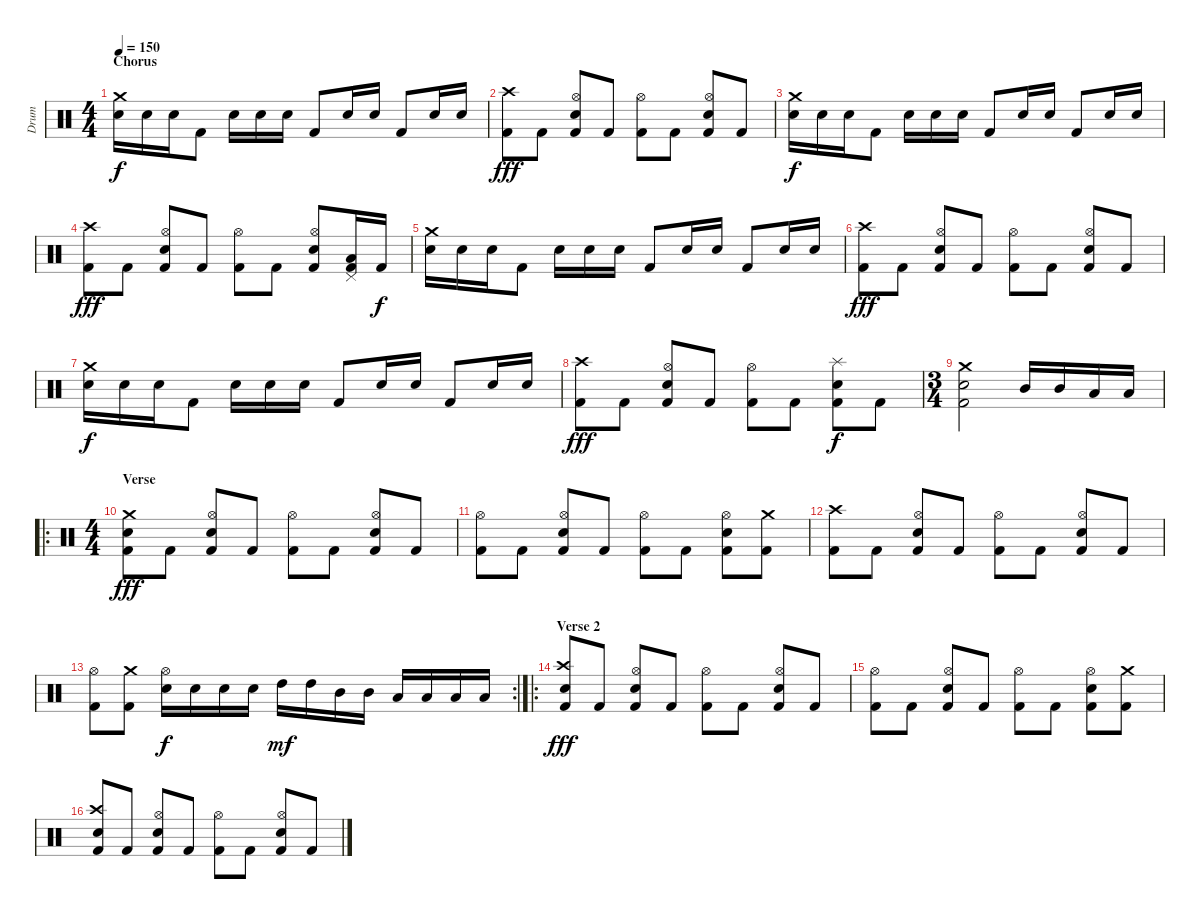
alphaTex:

\track ("Drum" "Drum") {instrument percussion}
\staff {score}
\articulation defaults
\ts (4 4)
\section ("" "Chorus")
\tempo 150
\clef neutral
\ks c
("Crash medium (hit)" "Electric Snare (hit)").16{dy f} "Electric Snare (hit)".16 "Electric Snare (hit)".16 "Kick (hit) 2".8 "Electric Snare (hit)".16 "Electric Snare (hit)".16 "Electric Snare (hit)".16 "Kick (hit) 2".8 "Electric Snare (hit)".16 "Electric Snare (hit)".16 "Kick (hit) 2".8 "Electric Snare (hit)".16 "Electric Snare (hit)".16 |
("Crash high (hit)" "Kick (hit) 2").8{dy fff} "Kick (hit) 2".8 ("Hi-Hat (open)" "Snare (hit) 2" "Kick (hit) 2").8 "Kick (hit) 2".8 ("Hi-Hat (open)" "Kick (hit) 2").8 "Kick (hit) 2".8 ("Hi-Hat (open)" "Snare (hit) 2" "Kick (hit) 2").8 "Kick (hit) 2".8 |
("Crash medium (hit)" "Electric Snare (hit)").16{dy f} "Electric Snare (hit)".16 "Electric Snare (hit)".16 "Kick (hit) 2".8 "Electric Snare (hit)".16 "Electric Snare (hit)".16 "Electric Snare (hit)".16 "Kick (hit) 2".8 "Electric Snare (hit)".16 "Electric Snare (hit)".16 "Kick (hit) 2".8 "Electric Snare (hit)".16 "Electric Snare (hit)".16 |
("Crash high (hit)" "Kick (hit) 2").8{dy fff} "Kick (hit) 2".8 ("Hi-Hat (open)" "Snare (hit) 2" "Kick (hit) 2").8 "Kick (hit) 2".8 ("Hi-Hat (open)" "Kick (hit) 2").8 "Kick (hit) 2".8 ("Hi-Hat (open)" "Snare (hit) 2" "Kick (hit) 2").8 ("Pedal Hi-Hat (hit)" "Low Floor Tom (hit)" "Kick (hit) 2").16 "Kick (hit) 2".16{dy f} |
("Crash medium (hit)" "Electric Snare (hit)").16 "Electric Snare (hit)".16 "Electric Snare (hit)".16 "Kick (hit) 2".8 "Electric Snare (hit)".16 "Electric Snare (hit)".16 "Electric Snare (hit)".16 "Kick (hit) 2".8 "Electric Snare (hit)".16 "Electric Snare (hit)".16 "Kick (hit) 2".8 "Electric Snare (hit)".16 "Electric Snare (hit)".16 |
("Crash high (hit)" "Kick (hit) 2").8{dy fff} "Kick (hit) 2".8 ("Hi-Hat (open)" "Snare (hit) 2" "Kick (hit) 2").8 "Kick (hit) 2".8 ("Hi-Hat (open)" "Kick (hit) 2").8 "Kick (hit) 2".8 ("Hi-Hat (open)" "Snare (hit) 2" "Kick (hit) 2").8 "Kick (hit) 2".8 |
("Crash medium (hit)" "Electric Snare (hit)").16{dy f} "Electric Snare (hit)".16 "Electric Snare (hit)".16 "Kick (hit) 2".8 "Electric Snare (hit)".16 "Electric Snare (hit)".16 "Electric Snare (hit)".16 "Kick (hit) 2".8 "Electric Snare (hit)".16 "Electric Snare (hit)".16 "Kick (hit) 2".8 "Electric Snare (hit)".16 "Electric Snare (hit)".16 |
("Crash high (hit)" "Kick (hit) 2").8{dy fff} "Kick (hit) 2".8 ("Hi-Hat (open)" "Snare (hit) 2" "Kick (hit) 2").8 "Kick (hit) 2".8 ("Hi-Hat (open)" "Kick (hit) 2").8 "Kick (hit) 2".8 ("Splash (hit)" "Electric Snare (hit)" "Kick (hit) 2").8{dy f} "Kick (hit) 2".8 |
\ts (3 4)
("Crash medium (hit)" "Electric Snare (hit)" "Kick (hit) 2").2 "Mid Tom (hit)".16 "Mid Tom (hit)".16 "Low Tom (hit)".16 "Low Tom (hit)".16 |
\ro
\ts (4 4)
\section ("" "Verse")
("Crash medium (hit)" "Snare (hit) 2" "Kick (hit) 2").8{dy fff} "Kick (hit) 2".8 ("Hi-Hat (open)" "Snare (hit) 2" "Kick (hit) 2").8 "Kick (hit) 2".8 ("Hi-Hat (open)" "Kick (hit) 2").8 "Kick (hit) 2".8 ("Hi-Hat (open)" "Snare (hit) 2" "Kick (hit) 2").8 "Kick (hit) 2".8 |
("Hi-Hat (open)" "Kick (hit) 2").8 "Kick (hit) 2".8 ("Hi-Hat (open)" "Snare (hit) 2" "Kick (hit) 2").8 "Kick (hit) 2".8 ("Hi-Hat (open)" "Kick (hit) 2").8 "Kick (hit) 2".8 ("Hi-Hat (open)" "Snare (hit) 2" "Kick (hit) 2").8 ("Crash medium (hit)" "Kick (hit) 2").8 |
("Crash high (hit)" "Kick (hit) 2").8 "Kick (hit) 2".8 ("Hi-Hat (open)" "Snare (hit) 2" "Kick (hit) 2").8 "Kick (hit) 2".8 ("Hi-Hat (open)" "Kick (hit) 2").8 "Kick (hit) 2".8 ("Hi-Hat (open)" "Snare (hit) 2" "Kick (hit) 2").8 "Kick (hit) 2".8 |
\rc 2
("Hi-Hat (open)" "Kick (hit) 2").8 ("Crash medium (hit)" "Kick (hit) 2").8 ("Hi-Hat (open)" "Snare (hit) 2").16{dy f} "Snare (hit) 2".16 "Snare (hit) 2".16 "Snare (hit) 2".16 "High Tom (hit)".16{dy mf} "High Tom (hit)".16 "Mid Tom (hit)".16 "Mid Tom (hit)".16 "Low Tom (hit)".16 "Low Tom (hit)".16 "Low Tom (hit)".16 "Low Tom (hit)".16 |
\ro
\section ("" "Verse 2")
("Crash high (hit)" "Snare (hit) 2" "Kick (hit) 2").8{dy fff} "Kick (hit) 2".8 ("Hi-Hat (open)" "Snare (hit) 2" "Kick (hit) 2").8 "Kick (hit) 2".8 ("Hi-Hat (open)" "Kick (hit) 2").8 "Kick (hit) 2".8 ("Hi-Hat (open)" "Snare (hit) 2" "Kick (hit) 2").8 "Kick (hit) 2".8 |
("Hi-Hat (open)" "Kick (hit) 2").8 "Kick (hit) 2".8 ("Hi-Hat (open)" "Snare (hit) 2" "Kick (hit) 2").8 "Kick (hit) 2".8 ("Hi-Hat (open)" "Kick (hit) 2").8 "Kick (hit) 2".8 ("Hi-Hat (open)" "Snare (hit) 2" "Kick (hit) 2").8 ("Crash medium (hit)" "Kick (hit) 2").8 |
("Crash high (hit)" "Snare (hit) 2" "Kick (hit) 2").8 "Kick (hit) 2".8 ("Hi-Hat (open)" "Snare (hit) 2" "Kick (hit) 2").8 "Kick (hit) 2".8 ("Hi-Hat (open)" "Kick (hit) 2").8 "Kick (hit) 2".8 ("Hi-Hat (open)" "Snare (hit) 2" "Kick (hit) 2").8 "Kick (hit) 2".8
